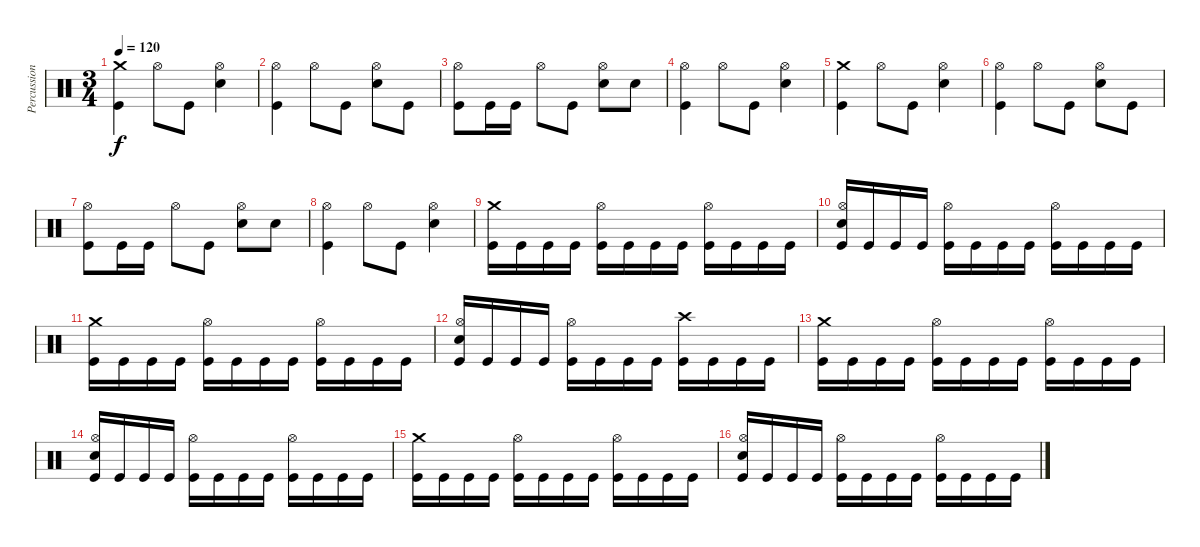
\track ("Percussion" "Percussion") {instrument percussion}
\staff {score}
\articulation defaults
\ts (3 4)
\tempo 120
\clef neutral
\ks c
("Crash medium (hit)" "Kick (hit)").4{dy f} "Hi-Hat (open)".8 "Kick (hit)".8 ("Hi-Hat (open)" "Snare (hit) 2").4 |
("Hi-Hat (open)" "Kick (hit)").4 "Hi-Hat (open)".8 "Kick (hit)".8 ("Hi-Hat (open)" "Snare (hit) 2").8 "Kick (hit)".8 |
("Hi-Hat (open)" "Kick (hit)").8 "Kick (hit)".16 "Kick (hit)".16 "Hi-Hat (open)".8 "Kick (hit)".8 ("Hi-Hat (open)" "Snare (hit) 2").8 "Snare (hit) 2".8 |
("Hi-Hat (open)" "Kick (hit)").4 "Hi-Hat (open)".8 "Kick (hit)".8 ("Hi-Hat (open)" "Snare (hit) 2").4 |
("Crash medium (hit)" "Kick (hit)").4 "Hi-Hat (open)".8 "Kick (hit)".8 ("Hi-Hat (open)" "Snare (hit) 2").4 |
("Hi-Hat (open)" "Kick (hit)").4 "Hi-Hat (open)".8 "Kick (hit)".8 ("Hi-Hat (open)" "Snare (hit) 2").8 "Kick (hit)".8 |
("Hi-Hat (open)" "Kick (hit)").8 "Kick (hit)".16 "Kick (hit)".16 "Hi-Hat (open)".8 "Kick (hit)".8 ("Hi-Hat (open)" "Snare (hit) 2").8 "Snare (hit) 2".8 |
("Hi-Hat (open)" "Kick (hit)").4 "Hi-Hat (open)".8 "Kick (hit)".8 ("Hi-Hat (open)" "Snare (hit) 2").4 |
("Crash medium (hit)" "Kick (hit)").16 "Kick (hit)".16 "Kick (hit)".16 "Kick (hit)".16 ("Hi-Hat (open)" "Kick (hit)").16 "Kick (hit)".16 "Kick (hit)".16 "Kick (hit)".16 ("Hi-Hat (open)" "Kick (hit)").16 "Kick (hit)".16 "Kick (hit)".16 "Kick (hit)".16 |
("Hi-Hat (open)" "Snare (hit) 2" "Kick (hit)").16 "Kick (hit)".16 "Kick (hit)".16 "Kick (hit)".16 ("Hi-Hat (open)" "Kick (hit)").16 "Kick (hit)".16 "Kick (hit)".16 "Kick (hit)".16 ("Hi-Hat (open)" "Kick (hit)").16 "Kick (hit)".16 "Kick (hit)".16 "Kick (hit)".16 |
("Crash medium (hit)" "Kick (hit)").16 "Kick (hit)".16 "Kick (hit)".16 "Kick (hit)".16 ("Hi-Hat (open)" "Kick (hit)").16 "Kick (hit)".16 "Kick (hit)".16 "Kick (hit)".16 ("Hi-Hat (open)" "Kick (hit)").16 "Kick (hit)".16 "Kick (hit)".16 "Kick (hit)".16 |
("Hi-Hat (open)" "Snare (hit) 2" "Kick (hit)").16 "Kick (hit)".16 "Kick (hit)".16 "Kick (hit)".16 ("Hi-Hat (open)" "Kick (hit)").16 "Kick (hit)".16 "Kick (hit)".16 "Kick (hit)".16 ("Crash high (hit)" "Kick (hit)").16 "Kick (hit)".16 "Kick (hit)".16 "Kick (hit)".16 |
("Crash medium (hit)" "Kick (hit)").16 "Kick (hit)".16 "Kick (hit)".16 "Kick (hit)".16 ("Hi-Hat (open)" "Kick (hit)").16 "Kick (hit)".16 "Kick (hit)".16 "Kick (hit)".16 ("Hi-Hat (open)" "Kick (hit)").16 "Kick (hit)".16 "Kick (hit)".16 "Kick (hit)".16 |
("Hi-Hat (open)" "Snare (hit) 2" "Kick (hit)").16 "Kick (hit)".16 "Kick (hit)".16 "Kick (hit)".16 ("Hi-Hat (open)" "Kick (hit)").16 "Kick (hit)".16 "Kick (hit)".16 "Kick (hit)".16 ("Hi-Hat (open)" "Kick (hit)").16 "Kick (hit)".16 "Kick (hit)".16 "Kick (hit)".16 |
("Crash medium (hit)" "Kick (hit)").16 "Kick (hit)".16 "Kick (hit)".16 "Kick (hit)".16 ("Hi-Hat (open)" "Kick (hit)").16 "Kick (hit)".16 "Kick (hit)".16 "Kick (hit)".16 ("Hi-Hat (open)" "Kick (hit)").16 "Kick (hit)".16 "Kick (hit)".16 "Kick (hit)".16 |
("Hi-Hat (open)" "Snare (hit) 2" "Kick (hit)").16 "Kick (hit)".16 "Kick (hit)".16 "Kick (hit)".16 ("Hi-Hat (open)" "Kick (hit)").16 "Kick (hit)".16 "Kick (hit)".16 "Kick (hit)".16 ("Hi-Hat (open)" "Kick (hit)").16 "Kick (hit)".16 "Kick (hit)".16 "Kick (hit)".16
